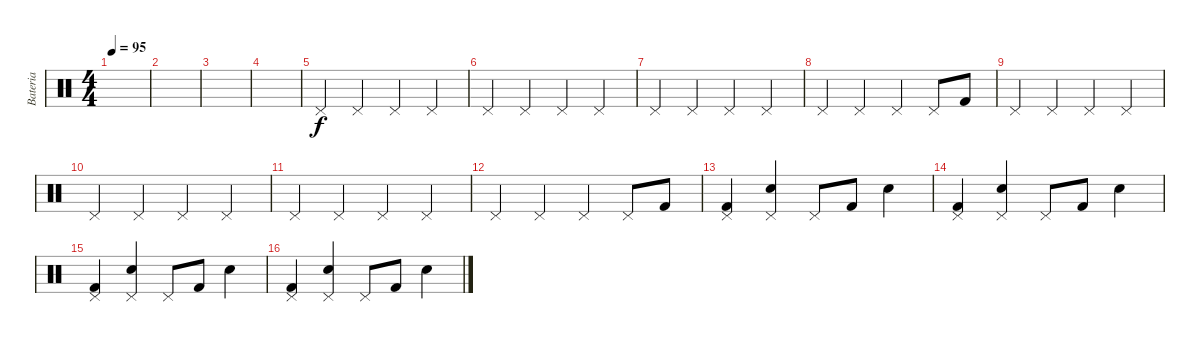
\track ("Bateria" "Bateria") {instrument percussion}
\staff {score}
\articulation defaults
\ts (4 4)
\tempo 95
\clef neutral
\ks c
|
|
|
|
"Pedal Hi-Hat (hit)".4 "Pedal Hi-Hat (hit)".4 "Pedal Hi-Hat (hit)".4 "Pedal Hi-Hat (hit)".4 |
"Pedal Hi-Hat (hit)".4 "Pedal Hi-Hat (hit)".4 "Pedal Hi-Hat (hit)".4 "Pedal Hi-Hat (hit)".4 |
"Pedal Hi-Hat (hit)".4 "Pedal Hi-Hat (hit)".4 "Pedal Hi-Hat (hit)".4 "Pedal Hi-Hat (hit)".4 |
"Pedal Hi-Hat (hit)".4 "Pedal Hi-Hat (hit)".4 "Pedal Hi-Hat (hit)".4 "Pedal Hi-Hat (hit)".8 "Kick (hit) 2".8 |
"Pedal Hi-Hat (hit)".4 "Pedal Hi-Hat (hit)".4 "Pedal Hi-Hat (hit)".4 "Pedal Hi-Hat (hit)".4 |
"Pedal Hi-Hat (hit)".4 "Pedal Hi-Hat (hit)".4 "Pedal Hi-Hat (hit)".4 "Pedal Hi-Hat (hit)".4 |
"Pedal Hi-Hat (hit)".4 "Pedal Hi-Hat (hit)".4 "Pedal Hi-Hat (hit)".4 "Pedal Hi-Hat (hit)".4 |
"Pedal Hi-Hat (hit)".4 "Pedal Hi-Hat (hit)".4 "Pedal Hi-Hat (hit)".4 "Pedal Hi-Hat (hit)".8 "Kick (hit) 2".8 |
("Pedal Hi-Hat (hit)" "Kick (hit) 2").4 ("Pedal Hi-Hat (hit)" "Electric Snare (hit)").4 "Pedal Hi-Hat (hit)".8 "Kick (hit) 2".8 "Electric Snare (hit)".4 |
("Pedal Hi-Hat (hit)" "Kick (hit) 2").4 ("Pedal Hi-Hat (hit)" "Electric Snare (hit)").4 "Pedal Hi-Hat (hit)".8 "Kick (hit) 2".8 "Electric Snare (hit)".4 |
("Pedal Hi-Hat (hit)" "Kick (hit) 2").4 ("Pedal Hi-Hat (hit)" "Electric Snare (hit)").4 "Pedal Hi-Hat (hit)".8 "Kick (hit) 2".8 "Electric Snare (hit)".4 |
("Pedal Hi-Hat (hit)" "Kick (hit) 2").4 ("Pedal Hi-Hat (hit)" "Electric Snare (hit)").4 "Pedal Hi-Hat (hit)".8 "Kick (hit) 2".8 "Electric Snare (hit)".4
